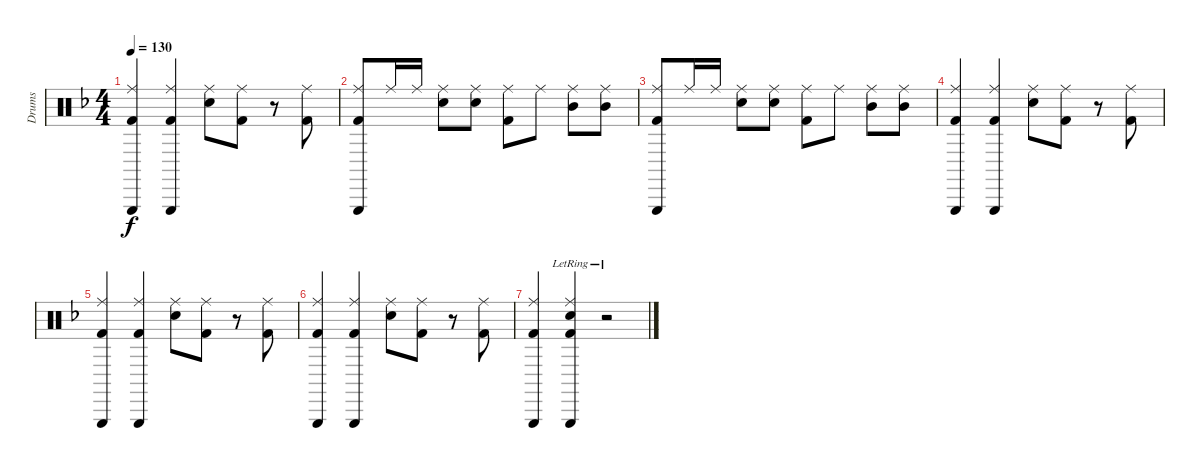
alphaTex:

\track ("Drums" "Drums") {instrument percussion}
\staff {score}
\articulation defaults
\ts (4 4)
\tempo 130
\clef neutral
\ks f
("Triangle (hit)" "Ride (middle)" "Kick (hit) 2").4{dy f} ("Triangle (hit)" "Ride (middle)" "Kick (hit) 2").4 ("Ride (middle)" "Snare (hit) 2").8 ("Ride (middle)" "Kick (hit) 2").8 r.8 ("Ride (middle)" "Kick (hit) 2").8 |
("Triangle (hit)" "Ride (middle)" "Kick (hit) 2").8 "Ride (middle)".16 "Ride (middle)".16 ("Ride (middle)" "Snare (hit) 2").8 ("Ride (middle)" "Snare (hit) 2").8 ("Ride (middle)" "Kick (hit) 2").8 "Ride (middle)".8 ("Ride (middle)" "Mid Tom (hit)").8 ("Ride (middle)" "Mid Tom (hit)").8 |
("Triangle (hit)" "Ride (middle)" "Kick (hit) 2").8 "Ride (middle)".16 "Ride (middle)".16 ("Ride (middle)" "Snare (hit) 2").8 ("Ride (middle)" "Snare (hit) 2").8 ("Ride (middle)" "Kick (hit) 2").8 "Ride (middle)".8 ("Ride (middle)" "Mid Tom (hit)").8 ("Ride (middle)" "Mid Tom (hit)").8 |
("Triangle (hit)" "Ride (middle)" "Kick (hit) 2").4 ("Triangle (hit)" "Ride (middle)" "Kick (hit) 2").4 ("Ride (middle)" "Snare (hit) 2").8 ("Ride (middle)" "Kick (hit) 2").8 r.8 ("Ride (middle)" "Kick (hit) 2").8 |
("Triangle (hit)" "Ride (middle)" "Kick (hit) 2").4 ("Triangle (hit)" "Ride (middle)" "Kick (hit) 2").4 ("Ride (middle)" "Snare (hit) 2").8 ("Ride (middle)" "Kick (hit) 2").8 r.8 ("Ride (middle)" "Kick (hit) 2").8 |
("Triangle (hit)" "Ride (middle)" "Kick (hit) 2").4 ("Triangle (hit)" "Ride (middle)" "Kick (hit) 2").4 ("Ride (middle)" "Snare (hit) 2").8 ("Ride (middle)" "Kick (hit) 2").8 r.8 ("Ride (middle)" "Kick (hit) 2").8 |
("Triangle (hit)" "Ride (middle)" "Kick (hit) 2").4 ("Triangle (hit)"{lr} "Ride (middle)"{lr} "Snare (hit) 2"{lr} "Kick (hit) 2"{lr}).4 r.2
